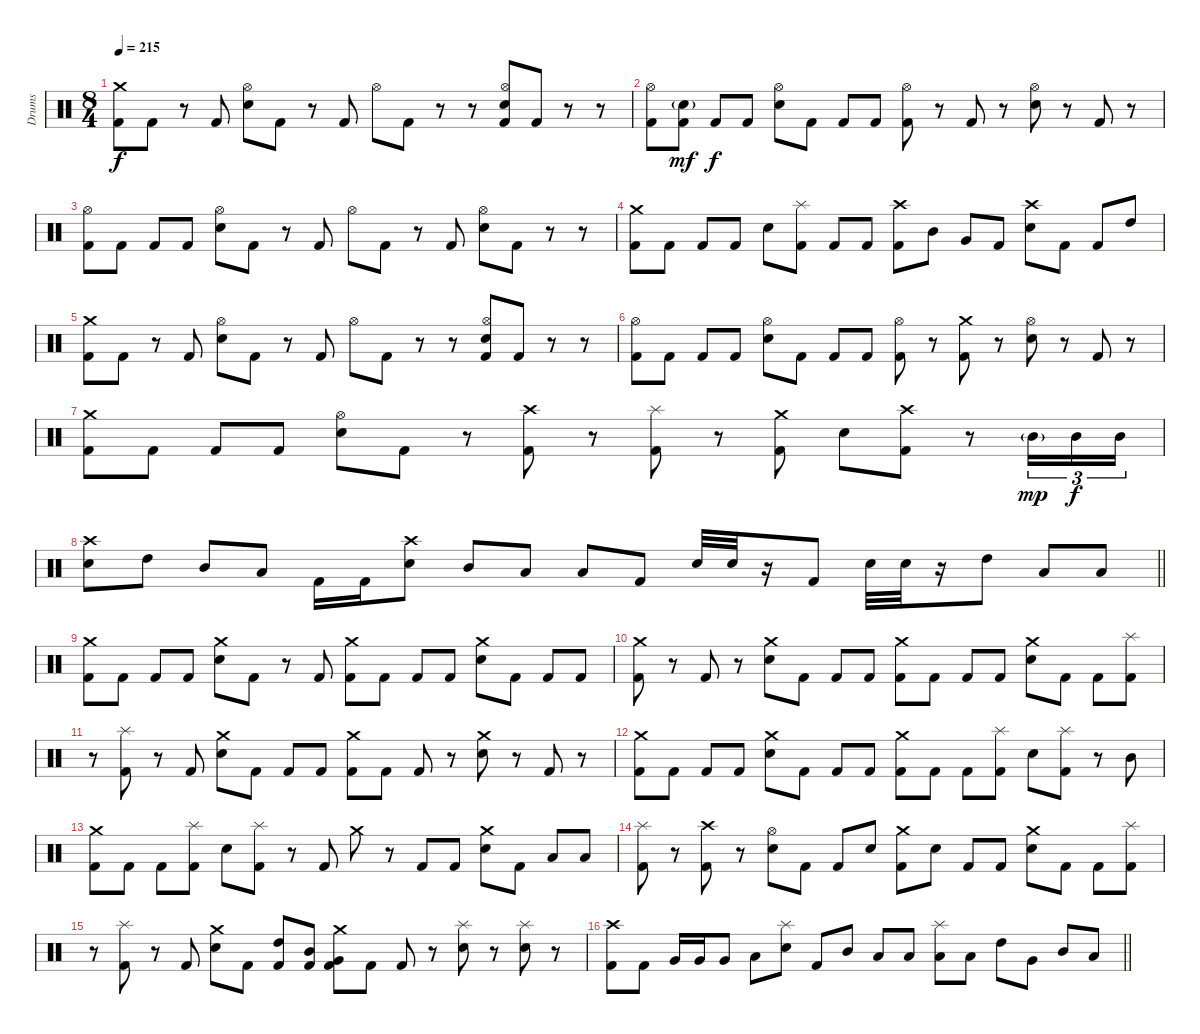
\track ("Drums" "Drums") {instrument percussion}
\staff {score}
\articulation defaults
\ts (8 4)
\section ("" "")
\tempo 215
\clef neutral
\ks c
("Crash medium (hit)" "Kick (hit) 2").8{dy f} "Kick (hit) 2".8 r.8 "Kick (hit) 2".8 ("Hi-Hat (open)" "Electric Snare (hit)").8 "Kick (hit) 2".8 r.8 "Kick (hit) 2".8 "Hi-Hat (open)".8 "Kick (hit) 2".8 r.8 r.8 ("Hi-Hat (open)" "Electric Snare (hit)" "Kick (hit) 2").8 "Kick (hit) 2".8 r.8 r.8 |
("Hi-Hat (open)" "Kick (hit) 2").8 ("Electric Snare (hit)"{g} "Kick (hit) 2").8{dy mf} "Kick (hit) 2".8{dy f} "Kick (hit) 2".8 ("Hi-Hat (open)" "Electric Snare (hit)").8 "Kick (hit) 2".8 "Kick (hit) 2".8 "Kick (hit) 2".8 ("Hi-Hat (open)" "Kick (hit) 2").8 r.8 "Kick (hit) 2".8 r.8 ("Hi-Hat (open)" "Electric Snare (hit)").8 r.8 "Kick (hit) 2".8 r.8 |
("Hi-Hat (open)" "Kick (hit) 2").8 "Kick (hit) 2".8 "Kick (hit) 2".8 "Kick (hit) 2".8 ("Hi-Hat (open)" "Electric Snare (hit)").8 "Kick (hit) 2".8 r.8 "Kick (hit) 2".8 "Hi-Hat (open)".8 "Kick (hit) 2".8 r.8 "Kick (hit) 2".8 ("Hi-Hat (open)" "Electric Snare (hit)").8 "Kick (hit) 2".8 r.8 r.8 |
("Crash medium (hit)" "Kick (hit) 2").8 "Kick (hit) 2".8 "Kick (hit) 2".8 "Kick (hit) 2".8 "Electric Snare (hit)".8 ("Splash (hit)" "Kick (hit) 2").8 "Kick (hit) 2".8 "Kick (hit) 2".8 ("Crash high (hit)" "Kick (hit) 2").8 "Mid Tom (hit)".8 "Very Low Tom (hit)".8 "Kick (hit) 2".8 ("Crash high (hit)" "Electric Snare (hit)").8 "Kick (hit) 2".8 "Kick (hit) 2".8 "High Tom (hit)".8 |
("Crash medium (hit)" "Kick (hit) 2").8 "Kick (hit) 2".8 r.8 "Kick (hit) 2".8 ("Hi-Hat (open)" "Electric Snare (hit)").8 "Kick (hit) 2".8 r.8 "Kick (hit) 2".8 "Hi-Hat (open)".8 "Kick (hit) 2".8 r.8 r.8 ("Hi-Hat (open)" "Electric Snare (hit)" "Kick (hit) 2").8 "Kick (hit) 2".8 r.8 r.8 |
("Hi-Hat (open)" "Kick (hit) 2").8 "Kick (hit) 2".8 "Kick (hit) 2".8 "Kick (hit) 2".8 ("Hi-Hat (open)" "Electric Snare (hit)").8 "Kick (hit) 2".8 "Kick (hit) 2".8 "Kick (hit) 2".8 ("Hi-Hat (open)" "Kick (hit) 2").8 r.8 ("Crash medium (hit)" "Kick (hit) 2").8 r.8 ("Hi-Hat (open)" "Electric Snare (hit)").8 r.8 "Kick (hit) 2".8 r.8 |
("Crash medium (hit)" "Kick (hit) 2").8 "Kick (hit) 2".8 "Kick (hit) 2".8 "Kick (hit) 2".8 ("Hi-Hat (open)" "Electric Snare (hit)").8 "Kick (hit) 2".8 r.8 ("Crash high (hit)" "Kick (hit) 2").8 r.8 ("Splash (hit)" "Kick (hit) 2").8 r.8 ("Crash medium (hit)" "Kick (hit) 2").8 "Electric Snare (hit)".8 ("Crash high (hit)" "Kick (hit) 2").8 r.8 "Mid Tom (hit)"{g}.16{tu (3 2) dy mp} "Mid Tom (hit)".16{tu (3 2) dy f} "Mid Tom (hit)".16{tu (3 2)} |
\barLineRight lightlight
("Crash high (hit)" "Electric Snare (hit)").8 "High Tom (hit)".8 "Mid Tom (hit)".8 "Low Tom (hit)".8 "Kick (hit) 2".16 "Kick (hit) 2".16 ("Crash high (hit)" "Electric Snare (hit)").8 "Mid Tom (hit)".8 "Low Tom (hit)".8 "Low Floor Tom (hit)".8 "Kick (hit) 2".8 "Electric Snare (hit)".32 "Electric Snare (hit)".32 r.16 "Kick (hit) 2".8 "Electric Snare (hit)".32 "Electric Snare (hit)".32 r.16 "High Tom (hit)".8 "Low Tom (hit)".8 "Low Floor Tom (hit)".8 |
\section ("" "")
("Crash medium (hit)" "Kick (hit) 2").8 "Kick (hit) 2".8 "Kick (hit) 2".8 "Kick (hit) 2".8 ("Crash medium (hit)" "Electric Snare (hit)").8 "Kick (hit) 2".8 r.8 "Kick (hit) 2".8 ("Crash medium (hit)" "Kick (hit) 2").8 "Kick (hit) 2".8 "Kick (hit) 2".8 "Kick (hit) 2".8 ("Crash medium (hit)" "Electric Snare (hit)").8 "Kick (hit) 2".8 "Kick (hit) 2".8 "Kick (hit) 2".8 |
("Crash medium (hit)" "Kick (hit) 2").8 r.8 "Kick (hit) 2".8 r.8 ("Crash medium (hit)" "Electric Snare (hit)").8 "Kick (hit) 2".8 "Kick (hit) 2".8 "Kick (hit) 2".8 ("Crash medium (hit)" "Kick (hit) 2").8 "Kick (hit) 2".8 "Kick (hit) 2".8 "Kick (hit) 2".8 ("Crash medium (hit)" "Electric Snare (hit)").8 "Kick (hit) 2".8 "Kick (hit) 2".8 ("Splash (hit)" "Kick (hit) 2").8 |
r.8 ("Splash (hit)" "Kick (hit) 2").8 r.8 "Kick (hit) 2".8 ("Crash medium (hit)" "Electric Snare (hit)").8 "Kick (hit) 2".8 "Kick (hit) 2".8 "Kick (hit) 2".8 ("Crash medium (hit)" "Kick (hit) 2").8 "Kick (hit) 2".8 "Kick (hit) 2".8 r.8 ("Crash medium (hit)" "Electric Snare (hit)").8 r.8 "Kick (hit) 2".8 r.8 |
("Crash medium (hit)" "Kick (hit) 2").8 "Kick (hit) 2".8 "Kick (hit) 2".8 "Kick (hit) 2".8 ("Crash medium (hit)" "Electric Snare (hit)").8 "Kick (hit) 2".8 "Kick (hit) 2".8 "Kick (hit) 2".8 ("Crash medium (hit)" "Kick (hit) 2").8 "Kick (hit) 2".8 "Kick (hit) 2".8 ("Splash (hit)" "Kick (hit) 2").8 "Electric Snare (hit)".8 ("Splash (hit)" "Kick (hit) 2").8 r.8 "Mid Tom (hit)".8 |
("Crash medium (hit)" "Kick (hit) 2").8 "Kick (hit) 2".8 "Kick (hit) 2".8 ("Splash (hit)" "Kick (hit) 2").8 "Electric Snare (hit)".8 ("Splash (hit)" "Kick (hit) 2").8 r.8 "Kick (hit) 2".8 "Crash medium (hit)".8 r.8 "Kick (hit) 2".8 "Kick (hit) 2".8 ("Crash medium (hit)" "Electric Snare (hit)").8 "Kick (hit) 2".8 "Low Tom (hit)".8 "Low Tom (hit)".8 |
("Splash (hit)" "Kick (hit) 2").8 r.8 ("Crash high (hit)" "Kick (hit) 2").8 r.8 ("Hi-Hat (open)" "Electric Snare (hit)").8 "Kick (hit) 2".8 "Kick (hit) 2".8 "Electric Snare (hit)".8 ("Crash medium (hit)" "Kick (hit) 2").8 "Electric Snare (hit)".8 "Kick (hit) 2".8 "Kick (hit) 2".8 ("Crash medium (hit)" "Electric Snare (hit)").8 "Kick (hit) 2".8 "Kick (hit) 2".8 ("Splash (hit)" "Kick (hit) 2").8 |
r.8 ("Splash (hit)" "Kick (hit) 2").8 r.8 "Kick (hit) 2".8 ("Crash medium (hit)" "Electric Snare (hit)").8 "Kick (hit) 2".8 ("High Tom (hit)" "Kick (hit) 2").8 ("Mid Tom (hit)" "Kick (hit) 2").8 ("Crash medium (hit)" "Very Low Tom (hit)" "Kick (hit) 2").8 "Kick (hit) 2".8 "Kick (hit) 2".8 r.8 ("Splash (hit)" "Electric Snare (hit)").8 r.8 ("Splash (hit)" "Electric Snare (hit)").8 r.8 |
\barLineRight lightlight
("Crash high (hit)" "Kick (hit) 2").8 "Kick (hit) 2".8 "Very Low Tom (hit)".16 "Very Low Tom (hit)".16 "Very Low Tom (hit)".8 "Low Floor Tom (hit)".8 ("Splash (hit)" "Electric Snare (hit)").8 "Kick (hit) 2".8 "Mid Tom (hit)".8 "Low Tom (hit)".8 "Low Floor Tom (hit)".8 ("Splash (hit)" "Low Tom (hit)").8 "Low Floor Tom (hit)".8 "High Tom (hit)".8 "Very Low Tom (hit)".8 "Mid Tom (hit)".8 "Low Tom (hit)".8
